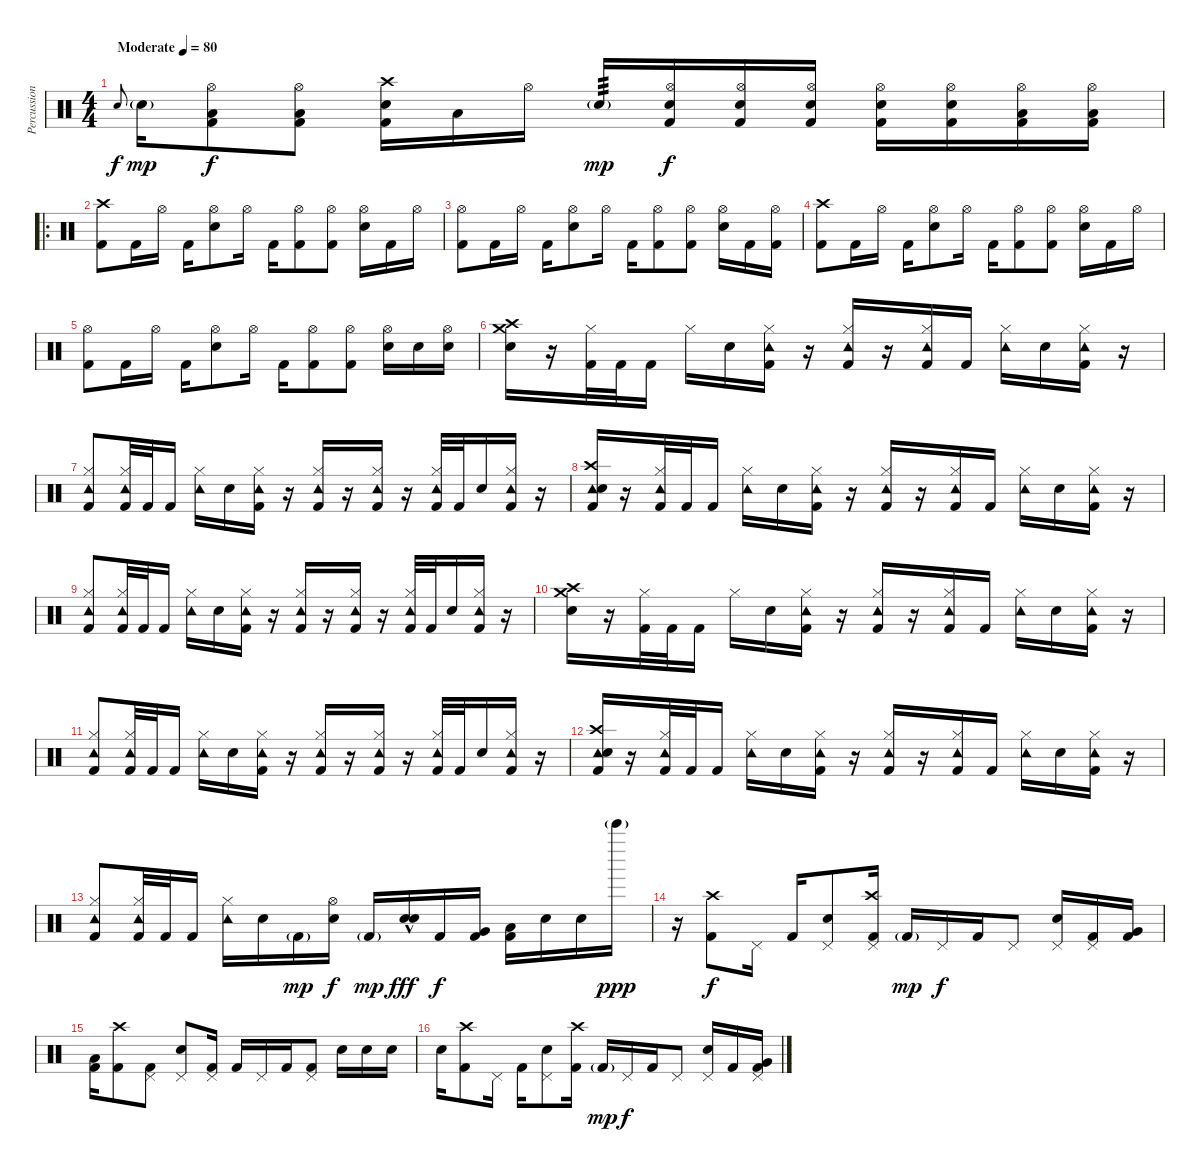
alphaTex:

\track ("Percussion" "Percussion") {instrument percussion}
\staff {score}
\articulation defaults
\ts (4 4)
\tempo (80 "Moderate")
\clef neutral
\ks c "Snare (hit) 2".8{gr onbeat dy f} "Snare (hit) 2"{g}.16{dy mp}
("Hi-Hat (open)" "Low Floor Tom (hit)" "Kick (hit) 2").8{dy f} ("Hi-Hat (open)" "Low Floor Tom (hit)" "Kick (hit) 2").8 ("Crash high (hit)" "Snare (hit) 2" "Kick (hit) 2").16 "Low Floor Tom (hit)".16 "Hi-Hat (open)".16 "Snare (hit) 2"{g}.16{tp 3 dy mp} ("Hi-Hat (open)" "Snare (hit) 2" "Kick (hit) 2").16{dy f} ("Hi-Hat (open)" "Snare (hit) 2" "Kick (hit) 2").16 ("Hi-Hat (open)" "Snare (hit) 2" "Kick (hit) 2").16 ("Hi-Hat (open)" "Snare (hit) 2" "Kick (hit) 2").16 ("Hi-Hat (open)" "Snare (hit) 2" "Kick (hit) 2").16 ("Hi-Hat (open)" "Low Floor Tom (hit)" "Kick (hit) 2").16 ("Hi-Hat (open)" "Low Tom (hit)" "Kick (hit) 2").16 |
\ro
("Crash high (hit)" "Kick (hit) 2").8 "Kick (hit) 2".16 "Hi-Hat (open)".16 "Kick (hit) 2".16 ("Hi-Hat (open)" "Snare (hit) 2").8 "Hi-Hat (open)".16 "Kick (hit) 2".16 ("Hi-Hat (open)" "Kick (hit) 2").8 ("Hi-Hat (open)" "Kick (hit) 2").8 ("Hi-Hat (open)" "Snare (hit) 2").16 "Kick (hit) 2".16 "Hi-Hat (open)".16 |
("Hi-Hat (open)" "Kick (hit) 2").8 "Kick (hit) 2".16 "Hi-Hat (open)".16 "Kick (hit) 2".16 ("Hi-Hat (open)" "Snare (hit) 2").8 "Hi-Hat (open)".16 "Kick (hit) 2".16 ("Hi-Hat (open)" "Kick (hit) 2").8 ("Hi-Hat (open)" "Kick (hit) 2").8 ("Hi-Hat (open)" "Snare (hit) 2").16 "Kick (hit) 2".16 ("Hi-Hat (open)" "Kick (hit) 2").16 |
("Crash high (hit)" "Kick (hit) 2").8 "Kick (hit) 2".16 "Hi-Hat (open)".16 "Kick (hit) 2".16 ("Hi-Hat (open)" "Snare (hit) 2").8 "Hi-Hat (open)".16 "Kick (hit) 2".16 ("Hi-Hat (open)" "Kick (hit) 2").8 ("Hi-Hat (open)" "Kick (hit) 2").8 ("Hi-Hat (open)" "Snare (hit) 2").16 "Kick (hit) 2".16 "Hi-Hat (open)".16 |
("Hi-Hat (open)" "Kick (hit) 2").8 "Kick (hit) 2".16 "Hi-Hat (open)".16 "Kick (hit) 2".16 ("Hi-Hat (open)" "Snare (hit) 2").8 "Hi-Hat (open)".16 "Kick (hit) 2".16 ("Hi-Hat (open)" "Kick (hit) 2").8 ("Hi-Hat (open)" "Kick (hit) 2").8 ("Hi-Hat (open)" "Snare (hit) 2").16 "Snare (hit) 2".16 ("Hi-Hat (open)" "Snare (hit) 2").16 |
("Crash high (hit)" "Crash medium (hit)" "Snare (hit) 2").16 r.16 ("Hi-Hat (closed)" "Kick (hit) 2").32 "Kick (hit) 2".32 "Kick (hit) 2".16 "Hi-Hat (closed)".16 "Snare (hit) 2".16 ("Hi-Hat (closed)" "Tambourine (hit)" "Kick (hit) 2").16 r.16 ("Hi-Hat (closed)" "Tambourine (hit)" "Kick (hit) 2").16 r.16 ("Hi-Hat (closed)" "Tambourine (hit)" "Kick (hit) 2").16 "Kick (hit) 2".16 ("Hi-Hat (closed)" "Tambourine (hit)").16 "Snare (hit) 2".16 ("Hi-Hat (closed)" "Tambourine (hit)" "Kick (hit) 2").16 r.16 |
("Hi-Hat (closed)" "Tambourine (hit)" "Kick (hit) 2").8 ("Hi-Hat (closed)" "Tambourine (hit)" "Kick (hit) 2").32 "Kick (hit) 2".32 "Kick (hit) 2".16 ("Hi-Hat (closed)" "Tambourine (hit)").16 "Snare (hit) 2".16 ("Hi-Hat (closed)" "Tambourine (hit)" "Kick (hit) 2").16 r.16 ("Hi-Hat (closed)" "Tambourine (hit)" "Kick (hit) 2").16 r.16 ("Hi-Hat (closed)" "Tambourine (hit)" "Kick (hit) 2").16 r.16 ("Hi-Hat (closed)" "Tambourine (hit)" "Kick (hit) 2").32 "Kick (hit) 2".32 "Snare (hit) 2".16 ("Hi-Hat (closed)" "Tambourine (hit)" "Kick (hit) 2").16 r.16 |
("Crash high (hit)" "Tambourine (hit)" "Snare (hit) 2" "Kick (hit) 2").16 r.16 ("Hi-Hat (closed)" "Tambourine (hit)" "Kick (hit) 2").32 "Kick (hit) 2".32 "Kick (hit) 2".16 ("Hi-Hat (closed)" "Tambourine (hit)").16 "Snare (hit) 2".16 ("Hi-Hat (closed)" "Tambourine (hit)" "Kick (hit) 2").16 r.16 ("Hi-Hat (closed)" "Tambourine (hit)" "Kick (hit) 2").16 r.16 ("Hi-Hat (closed)" "Tambourine (hit)" "Kick (hit) 2").16 "Kick (hit) 2".16 ("Hi-Hat (closed)" "Tambourine (hit)").16 "Snare (hit) 2".16 ("Hi-Hat (closed)" "Tambourine (hit)" "Kick (hit) 2").16 r.16 |
("Hi-Hat (closed)" "Tambourine (hit)" "Kick (hit) 2").8 ("Hi-Hat (closed)" "Tambourine (hit)" "Kick (hit) 2").32 "Kick (hit) 2".32 "Kick (hit) 2".16 ("Hi-Hat (closed)" "Tambourine (hit)").16 "Snare (hit) 2".16 ("Hi-Hat (closed)" "Tambourine (hit)" "Kick (hit) 2").16 r.16 ("Hi-Hat (closed)" "Tambourine (hit)" "Kick (hit) 2").16 r.16 ("Hi-Hat (closed)" "Tambourine (hit)" "Kick (hit) 2").16 r.16 ("Hi-Hat (closed)" "Tambourine (hit)" "Kick (hit) 2").32 "Kick (hit) 2".32 "Snare (hit) 2".16 ("Hi-Hat (closed)" "Tambourine (hit)" "Kick (hit) 2").16 r.16 |
("Crash high (hit)" "Crash medium (hit)" "Snare (hit) 2").16 r.16 ("Hi-Hat (closed)" "Kick (hit) 2").32 "Kick (hit) 2".32 "Kick (hit) 2".16 "Hi-Hat (closed)".16 "Snare (hit) 2".16 ("Hi-Hat (closed)" "Tambourine (hit)" "Kick (hit) 2").16 r.16 ("Hi-Hat (closed)" "Tambourine (hit)" "Kick (hit) 2").16 r.16 ("Hi-Hat (closed)" "Tambourine (hit)" "Kick (hit) 2").16 "Kick (hit) 2".16 ("Hi-Hat (closed)" "Tambourine (hit)").16 "Snare (hit) 2".16 ("Hi-Hat (closed)" "Tambourine (hit)" "Kick (hit) 2").16 r.16 |
("Hi-Hat (closed)" "Tambourine (hit)" "Kick (hit) 2").8 ("Hi-Hat (closed)" "Tambourine (hit)" "Kick (hit) 2").32 "Kick (hit) 2".32 "Kick (hit) 2".16 ("Hi-Hat (closed)" "Tambourine (hit)").16 "Snare (hit) 2".16 ("Hi-Hat (closed)" "Tambourine (hit)" "Kick (hit) 2").16 r.16 ("Hi-Hat (closed)" "Tambourine (hit)" "Kick (hit) 2").16 r.16 ("Hi-Hat (closed)" "Tambourine (hit)" "Kick (hit) 2").16 r.16 ("Hi-Hat (closed)" "Tambourine (hit)" "Kick (hit) 2").32 "Kick (hit) 2".32 "Snare (hit) 2".16 ("Hi-Hat (closed)" "Tambourine (hit)" "Kick (hit) 2").16 r.16 |
("Crash high (hit)" "Tambourine (hit)" "Snare (hit) 2" "Kick (hit) 2").16 r.16 ("Hi-Hat (closed)" "Tambourine (hit)" "Kick (hit) 2").32 "Kick (hit) 2".32 "Kick (hit) 2".16 ("Hi-Hat (closed)" "Tambourine (hit)").16 "Snare (hit) 2".16 ("Hi-Hat (closed)" "Tambourine (hit)" "Kick (hit) 2").16 r.16 ("Hi-Hat (closed)" "Tambourine (hit)" "Kick (hit) 2").16 r.16 ("Hi-Hat (closed)" "Tambourine (hit)" "Kick (hit) 2").16 "Kick (hit) 2".16 ("Hi-Hat (closed)" "Tambourine (hit)").16 "Snare (hit) 2".16 ("Hi-Hat (closed)" "Tambourine (hit)" "Kick (hit) 2").16 r.16 |
("Hi-Hat (closed)" "Tambourine (hit)" "Kick (hit) 2").8 ("Hi-Hat (closed)" "Tambourine (hit)" "Kick (hit) 2").32 "Kick (hit) 2".32 "Kick (hit) 2".16 ("Hi-Hat (closed)" "Tambourine (hit)").16 "Snare (hit) 2".16 "Kick (hit) 2"{g}.16{dy mp} ("Hi-Hat (open)" "Snare (hit) 2").16{dy f} "Kick (hit) 2"{g}.16{dy mp} ("Snare (hit) 2"{hac} "Snare (hit) 2"{hac}).16{dy fff} "Kick (hit) 2".16{dy f} ("Very Low Tom (hit)" "Kick (hit) 2").16 ("Low Floor Tom (hit)" "Kick (hit) 2").16 "Snare (hit) 2".16 "Snare (hit) 2".16 "Bell Tree (hit)"{g}.16{dy ppp} |
r.16 ("Crash high (hit)" "Kick (hit) 2").8{dy f} "Pedal Hi-Hat (hit)".16 "Kick (hit) 2".16 ("Pedal Hi-Hat (hit)" "Snare (hit) 2").8 ("Crash high (hit)" "Pedal Hi-Hat (hit)" "Kick (hit) 2").16 "Kick (hit) 2"{g}.16{dy mp} "Pedal Hi-Hat (hit)".16{dy f} "Kick (hit) 2".16 "Pedal Hi-Hat (hit)".8 ("Pedal Hi-Hat (hit)" "Snare (hit) 2").16 ("Pedal Hi-Hat (hit)" "Kick (hit) 2").16 ("Very Low Tom (hit)" "Kick (hit) 2").16 |
("Low Floor Tom (hit)" "Kick (hit) 2").16 ("Crash high (hit)" "Kick (hit) 2").8 ("Pedal Hi-Hat (hit)" "Kick (hit) 2").8 ("Pedal Hi-Hat (hit)" "Snare (hit) 2").8 ("Pedal Hi-Hat (hit)" "Kick (hit) 2").16 "Kick (hit) 2".16 "Pedal Hi-Hat (hit)".16 "Kick (hit) 2".16 ("Pedal Hi-Hat (hit)" "Kick (hit) 2").8 "Snare (hit) 2".16 "Snare (hit) 2".16 "Snare (hit) 2".16 |
"Snare (hit) 2".16 ("Crash high (hit)" "Kick (hit) 2").8 "Pedal Hi-Hat (hit)".16 "Kick (hit) 2".16 ("Pedal Hi-Hat (hit)" "Snare (hit) 2").8 ("Crash high (hit)" "Kick (hit) 2").16 "Kick (hit) 2"{g}.16{dy mp} "Pedal Hi-Hat (hit)".16{dy f} "Kick (hit) 2".16 "Pedal Hi-Hat (hit)".8 ("Pedal Hi-Hat (hit)" "Snare (hit) 2").16 "Kick (hit) 2".16 ("Pedal Hi-Hat (hit)" "Very Low Tom (hit)" "Kick (hit) 2").16
